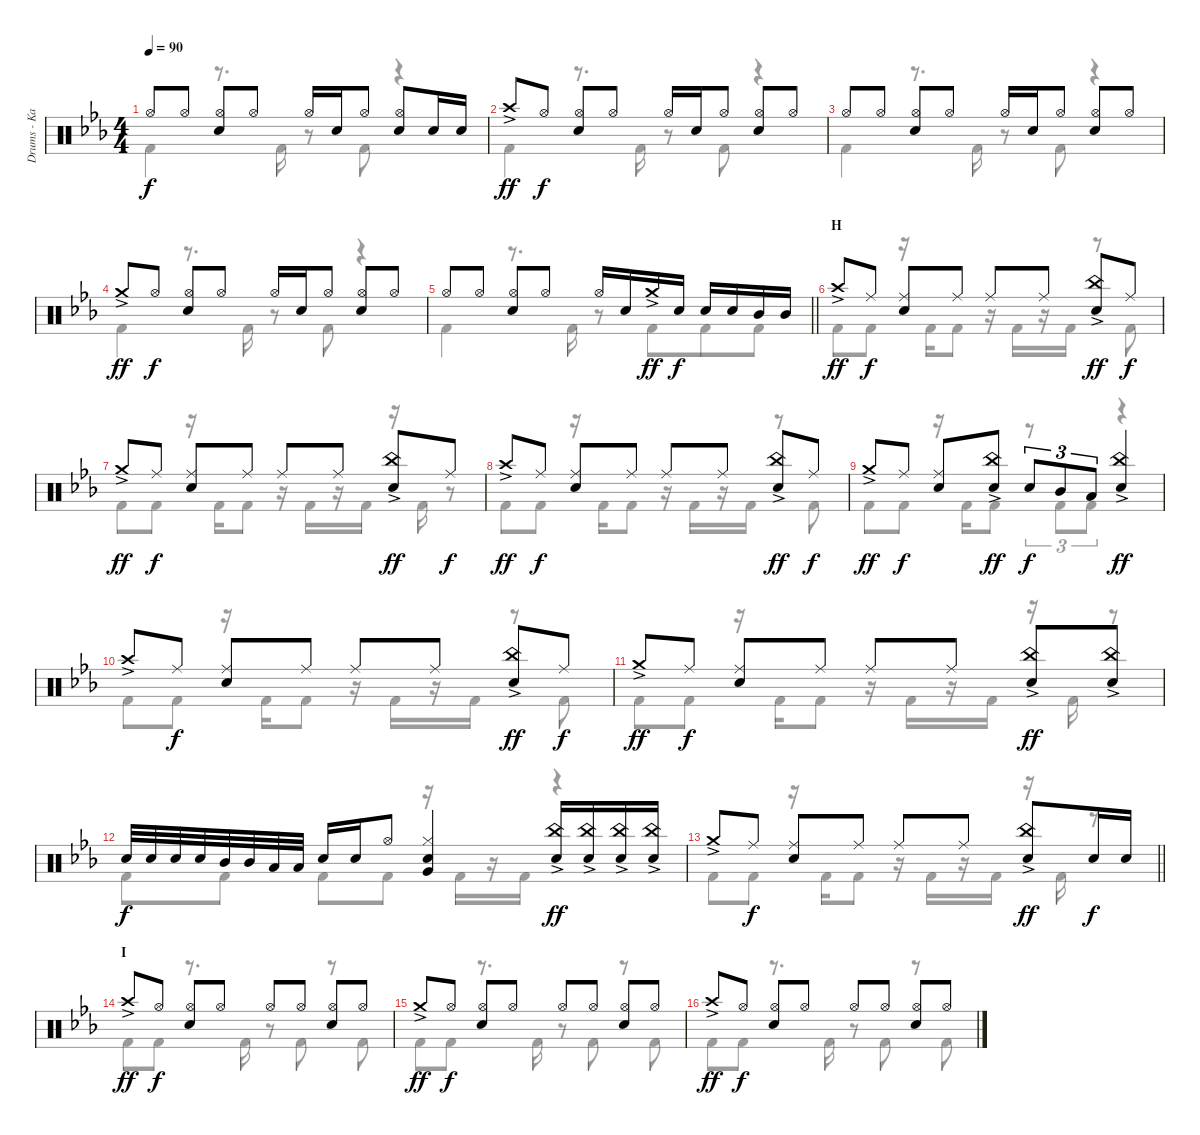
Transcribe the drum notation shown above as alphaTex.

\track ("Drums - Kai" "Drums - Ka") {instrument percussion}
\staff {score}
\articulation defaults
\voice
\ts (4 4)
\tempo 90
\clef neutral
\ks eb "Hi-Hat (open)".8{dy f} "Hi-Hat (open)".8
("Hi-Hat (open)" "Snare (hit) 2").8 "Hi-Hat (open)".8 "Hi-Hat (open)".16 "Snare (hit) 2".16 "Hi-Hat (open)".8 ("Hi-Hat (open)" "Snare (hit) 2").8 "Snare (hit) 2".16 "Snare (hit) 2".16 |
"Crash high (hit)"{ac}.8{dy ff} "Hi-Hat (open)".8{dy f} ("Hi-Hat (open)" "Snare (hit) 2").8 "Hi-Hat (open)".8 "Hi-Hat (open)".16 "Snare (hit) 2".16 "Hi-Hat (open)".8 ("Hi-Hat (open)" "Snare (hit) 2").8 "Hi-Hat (open)".8 |
"Hi-Hat (open)".8 "Hi-Hat (open)".8 ("Hi-Hat (open)" "Snare (hit) 2").8 "Hi-Hat (open)".8 "Hi-Hat (open)".16 "Snare (hit) 2".16 "Hi-Hat (open)".8 ("Hi-Hat (open)" "Snare (hit) 2").8 "Hi-Hat (open)".8 |
"Crash medium (hit)"{ac}.8{dy ff} "Hi-Hat (open)".8{dy f} ("Hi-Hat (open)" "Snare (hit) 2").8 "Hi-Hat (open)".8 "Hi-Hat (open)".16 "Snare (hit) 2".16 "Hi-Hat (open)".8 ("Hi-Hat (open)" "Snare (hit) 2").8 "Hi-Hat (open)".8 |
\barLineRight lightlight "Hi-Hat (open)".8 "Hi-Hat (open)".8
("Hi-Hat (open)" "Snare (hit) 2").8 "Hi-Hat (open)".8 "Hi-Hat (open)".16 "Snare (hit) 2".16 "Crash medium (hit)"{ac}.16{dy ff} "Snare (hit) 2".16{dy f} "Snare (hit) 2".16 "Snare (hit) 2".16 "Mid Tom (hit)".16 "Mid Tom (hit)".16 |
\section ("" "H")
"Crash high (hit)"{ac}.8{dy ff} "Ride (middle)".8{dy f} ("Ride (middle)" "Snare (hit) 2").8 "Ride (middle)".8 "Ride (middle)".8 "Ride (middle)".8 ("China (hit)"{ac} "Snare (hit) 2").8{dy ff} "Ride (middle)".8{dy f} |
"Crash medium (hit)"{ac}.8{dy ff} "Ride (middle)".8{dy f} ("Ride (middle)" "Snare (hit) 2").8 "Ride (middle)".8 "Ride (middle)".8 "Ride (middle)".8 ("China (hit)"{ac} "Snare (hit) 2").8{dy ff} "Ride (middle)".8{dy f} |
"Crash high (hit)"{ac}.8{dy ff} "Ride (middle)".8{dy f} ("Ride (middle)" "Snare (hit) 2").8 "Ride (middle)".8 "Ride (middle)".8 "Ride (middle)".8 ("China (hit)"{ac} "Snare (hit) 2").8{dy ff} "Ride (middle)".8{dy f} |
"Crash medium (hit)"{ac}.8{dy ff} "Ride (middle)".8{dy f} ("Ride (middle)" "Snare (hit) 2").8 ("China (hit)"{ac} "Snare (hit) 2").8{dy ff} "Snare (hit) 2".8{tu (3 2) dy f} "Mid Tom (hit)".8{tu (3 2)} "Low Tom (hit)".8{tu (3 2)} ("China (hit)"{ac} "Snare (hit) 2").4{dy ff} |
"Crash high (hit)"{ac}.8 "Ride (middle)".8{dy f} ("Ride (middle)" "Snare (hit) 2").8 "Ride (middle)".8 "Ride (middle)".8 "Ride (middle)".8 ("China (hit)"{ac} "Snare (hit) 2").8{dy ff} "Ride (middle)".8{dy f} |
"Crash medium (hit)"{ac}.8{dy ff} "Ride (middle)".8{dy f} ("Ride (middle)" "Snare (hit) 2").8 "Ride (middle)".8 "Ride (middle)".8 "Ride (middle)".8 ("China (hit)"{ac} "Snare (hit) 2").8{dy ff} ("China (hit)"{ac} "Snare (hit) 2").8 |
"Snare (hit) 2".32{dy f} "Snare (hit) 2".32 "Snare (hit) 2".32 "Snare (hit) 2".32 "Mid Tom (hit)".32 "Mid Tom (hit)".32 "Low Tom (hit)".32 "Low Tom (hit)".32 "Snare (hit) 2".16 "Snare (hit) 2".16 "Hi-Hat (open)".8 ("Very Low Tom (hit)" "Hi-Hat (closed)" "Snare (hit) 2").4 ("China (hit)"{ac} "Snare (hit) 2").16{dy ff} ("China (hit)"{ac} "Snare (hit) 2").16 ("China (hit)"{ac} "Snare (hit) 2").16 ("China (hit)"{ac} "Snare (hit) 2").16 |
\barLineRight lightlight "Crash medium (hit)"{ac}.8 "Ride (middle)".8{dy f}
("Ride (middle)" "Snare (hit) 2").8 "Ride (middle)".8 "Ride (middle)".8 "Ride (middle)".8 ("China (hit)"{ac} "Snare (hit) 2").8{dy ff} "Snare (hit) 2".16{dy f} "Snare (hit) 2".16 |
\section ("" "I")
"Crash high (hit)"{ac}.8{dy ff} "Hi-Hat (open)".8{dy f} ("Hi-Hat (open)" "Snare (hit) 2").8 "Hi-Hat (open)".8 "Hi-Hat (open)".8 "Hi-Hat (open)".8 ("Hi-Hat (open)" "Snare (hit) 2").8 "Hi-Hat (open)".8 |
"Crash medium (hit)"{ac}.8{dy ff} "Hi-Hat (open)".8{dy f} ("Hi-Hat (open)" "Snare (hit) 2").8 "Hi-Hat (open)".8 "Hi-Hat (open)".8 "Hi-Hat (open)".8 ("Hi-Hat (open)" "Snare (hit) 2").8 "Hi-Hat (open)".8 |
"Crash high (hit)"{ac}.8{dy ff} "Hi-Hat (open)".8{dy f} ("Hi-Hat (open)" "Snare (hit) 2").8 "Hi-Hat (open)".8 "Hi-Hat (open)".8 "Hi-Hat (open)".8 ("Hi-Hat (open)" "Snare (hit) 2").8 "Hi-Hat (open)".8
\voice
\clef neutral
\ottava regular
\simile none
\ks eb "Kick (hit) 2".4{dy f}
r.8{d} "Kick (hit) 2".16 r.8 "Kick (hit) 2".8 r.4 |
"Kick (hit) 2".4 r.8{d} "Kick (hit) 2".16 r.8 "Kick (hit) 2".8 r.4 |
"Kick (hit) 2".4 r.8{d} "Kick (hit) 2".16 r.8 "Kick (hit) 2".8 r.4 |
"Kick (hit) 2".4 r.8{d} "Kick (hit) 2".16 r.8 "Kick (hit) 2".8 r.4 |
\barLineRight lightlight "Kick (hit) 2".4
r.8{d} "Kick (hit) 2".16 r.8 "Kick (hit) 2".8{beam merge} "Kick (hit) 2".8 "Kick (hit) 2".8 |
"Kick (hit) 2".8 "Kick (hit) 2".8 r.16 "Kick (hit) 2".16 "Kick (hit) 2".8 r.16 "Kick (hit) 2".16 r.16 "Kick (hit) 2".16 r.8 "Kick (hit) 2".8 |
"Kick (hit) 2".8 "Kick (hit) 2".8 r.16 "Kick (hit) 2".16 "Kick (hit) 2".8 r.16 "Kick (hit) 2".16 r.16 "Kick (hit) 2".16 r.16 "Kick (hit) 2".16 r.8 |
"Kick (hit) 2".8 "Kick (hit) 2".8 r.16 "Kick (hit) 2".16 "Kick (hit) 2".8 r.16 "Kick (hit) 2".16 r.16 "Kick (hit) 2".16 r.8 "Kick (hit) 2".8 |
"Kick (hit) 2".8 "Kick (hit) 2".8 r.16 "Kick (hit) 2".16 "Kick (hit) 2".8 r.8{tu (3 2)} "Kick (hit) 2".8{tu (3 2)} "Kick (hit) 2".8{tu (3 2)} r.4 |
"Kick (hit) 2".8 "Kick (hit) 2".8 r.16 "Kick (hit) 2".16 "Kick (hit) 2".8 r.16 "Kick (hit) 2".16 r.16 "Kick (hit) 2".16 r.8 "Kick (hit) 2".8 |
"Kick (hit) 2".8 "Kick (hit) 2".8 r.16 "Kick (hit) 2".16 "Kick (hit) 2".8 r.16 "Kick (hit) 2".16 r.16 "Kick (hit) 2".16 r.16 "Kick (hit) 2".16 r.8 |
"Kick (hit) 2".8 "Kick (hit) 2".8 "Kick (hit) 2".8 "Kick (hit) 2".8 r.16 "Kick (hit) 2".16 r.16 "Kick (hit) 2".16 r.4 |
\barLineRight lightlight "Kick (hit) 2".8 "Kick (hit) 2".8
r.16 "Kick (hit) 2".16 "Kick (hit) 2".8 r.16 "Kick (hit) 2".16 r.16 "Kick (hit) 2".16 r.16 "Kick (hit) 2".16 r.8 |
"Kick (hit) 2".8 "Kick (hit) 2".8 r.8{d} "Kick (hit) 2".16 r.8 "Kick (hit) 2".8 r.8 "Kick (hit) 2".8 |
"Kick (hit) 2".8 "Kick (hit) 2".8 r.8{d} "Kick (hit) 2".16 r.8 "Kick (hit) 2".8 r.8 "Kick (hit) 2".8 |
"Kick (hit) 2".8 "Kick (hit) 2".8 r.8{d} "Kick (hit) 2".16 r.8 "Kick (hit) 2".8 r.8 "Kick (hit) 2".8
